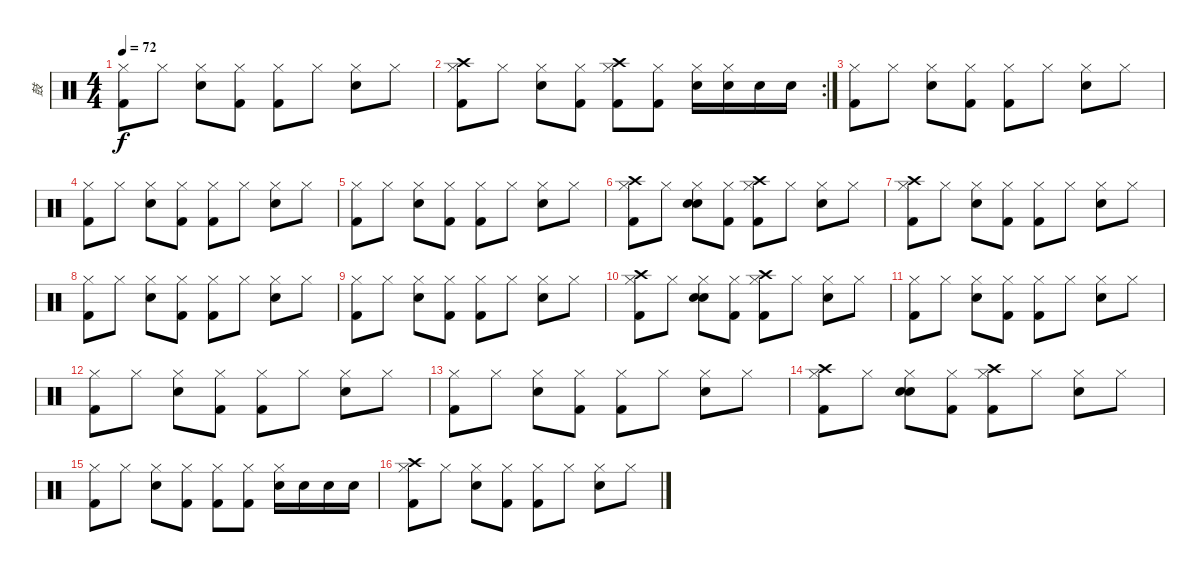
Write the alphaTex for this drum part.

\track ("鼓" "鼓") {instrument percussion}
\staff {score}
\articulation defaults
\ts (4 4)
\tempo 72
\clef neutral
\ks c
("Hi-Hat (closed)" "Kick (hit) 2").8{dy f} "Hi-Hat (closed)".8 ("Hi-Hat (closed)" "Snare (hit) 2").8 ("Hi-Hat (closed)" "Kick (hit) 2").8 ("Hi-Hat (closed)" "Kick (hit) 2").8 "Hi-Hat (closed)".8 ("Hi-Hat (closed)" "Snare (hit) 2").8 "Hi-Hat (closed)".8 |
\rc 2
("Hi-Hat (closed)" "Kick (hit) 2" "Crash high (hit)").8 "Hi-Hat (closed)".8 ("Hi-Hat (closed)" "Snare (hit) 2").8 ("Hi-Hat (closed)" "Kick (hit) 2").8 ("Hi-Hat (closed)" "Crash high (hit)" "Kick (hit) 2").8 ("Hi-Hat (closed)" "Kick (hit) 2").8 ("Hi-Hat (closed)" "Snare (hit) 2").16 ("Hi-Hat (closed)" "Snare (hit) 2").16 "Snare (hit) 2".16 "Snare (hit) 2".16 |
("Hi-Hat (closed)" "Kick (hit) 2").8 "Hi-Hat (closed)".8 ("Hi-Hat (closed)" "Snare (hit) 2").8 ("Hi-Hat (closed)" "Kick (hit) 2").8 ("Hi-Hat (closed)" "Kick (hit) 2").8 "Hi-Hat (closed)".8 ("Hi-Hat (closed)" "Snare (hit) 2").8 "Hi-Hat (closed)".8 |
("Hi-Hat (closed)" "Kick (hit) 2").8 "Hi-Hat (closed)".8 ("Hi-Hat (closed)" "Snare (hit) 2").8 ("Hi-Hat (closed)" "Kick (hit) 2").8 ("Hi-Hat (closed)" "Kick (hit) 2").8 "Hi-Hat (closed)".8 ("Hi-Hat (closed)" "Snare (hit) 2").8 "Hi-Hat (closed)".8 |
("Hi-Hat (closed)" "Kick (hit) 2").8 "Hi-Hat (closed)".8 ("Hi-Hat (closed)" "Snare (hit) 2").8 ("Hi-Hat (closed)" "Kick (hit) 2").8 ("Hi-Hat (closed)" "Kick (hit) 2").8 "Hi-Hat (closed)".8 ("Hi-Hat (closed)" "Snare (hit) 2").8 "Hi-Hat (closed)".8 |
("Hi-Hat (closed)" "Crash high (hit)" "Kick (hit) 2").8 "Hi-Hat (closed)".8 ("Hi-Hat (closed)" "Snare (hit) 2" "Snare (hit) 2").8 ("Hi-Hat (closed)" "Kick (hit) 2").8 ("Hi-Hat (closed)" "Kick (hit) 2" "Crash high (hit)").8 "Hi-Hat (closed)".8 ("Hi-Hat (closed)" "Snare (hit) 2").8 "Hi-Hat (closed)".8 |
("Hi-Hat (closed)" "Kick (hit) 2" "Crash high (hit)").8 "Hi-Hat (closed)".8 ("Hi-Hat (closed)" "Snare (hit) 2").8 ("Hi-Hat (closed)" "Kick (hit) 2").8 ("Hi-Hat (closed)" "Kick (hit) 2").8 "Hi-Hat (closed)".8 ("Hi-Hat (closed)" "Snare (hit) 2").8 "Hi-Hat (closed)".8 |
("Hi-Hat (closed)" "Kick (hit) 2").8 "Hi-Hat (closed)".8 ("Hi-Hat (closed)" "Snare (hit) 2").8 ("Hi-Hat (closed)" "Kick (hit) 2").8 ("Hi-Hat (closed)" "Kick (hit) 2").8 "Hi-Hat (closed)".8 ("Hi-Hat (closed)" "Snare (hit) 2").8 "Hi-Hat (closed)".8 |
("Hi-Hat (closed)" "Kick (hit) 2").8 "Hi-Hat (closed)".8 ("Hi-Hat (closed)" "Snare (hit) 2").8 ("Hi-Hat (closed)" "Kick (hit) 2").8 ("Hi-Hat (closed)" "Kick (hit) 2").8 "Hi-Hat (closed)".8 ("Hi-Hat (closed)" "Snare (hit) 2").8 "Hi-Hat (closed)".8 |
("Hi-Hat (closed)" "Crash high (hit)" "Kick (hit) 2").8 "Hi-Hat (closed)".8 ("Hi-Hat (closed)" "Snare (hit) 2" "Snare (hit) 2").8 ("Hi-Hat (closed)" "Kick (hit) 2").8 ("Hi-Hat (closed)" "Kick (hit) 2" "Crash high (hit)").8 "Hi-Hat (closed)".8 ("Hi-Hat (closed)" "Snare (hit) 2").8 "Hi-Hat (closed)".8 |
("Hi-Hat (closed)" "Kick (hit) 2").8 "Hi-Hat (closed)".8 ("Hi-Hat (closed)" "Snare (hit) 2").8 ("Hi-Hat (closed)" "Kick (hit) 2").8 ("Hi-Hat (closed)" "Kick (hit) 2").8 "Hi-Hat (closed)".8 ("Hi-Hat (closed)" "Snare (hit) 2").8 "Hi-Hat (closed)".8 |
("Hi-Hat (closed)" "Kick (hit) 2").8 "Hi-Hat (closed)".8 ("Hi-Hat (closed)" "Snare (hit) 2").8 ("Hi-Hat (closed)" "Kick (hit) 2").8 ("Hi-Hat (closed)" "Kick (hit) 2").8 "Hi-Hat (closed)".8 ("Hi-Hat (closed)" "Snare (hit) 2").8 "Hi-Hat (closed)".8 |
("Hi-Hat (closed)" "Kick (hit) 2").8 "Hi-Hat (closed)".8 ("Hi-Hat (closed)" "Snare (hit) 2").8 ("Hi-Hat (closed)" "Kick (hit) 2").8 ("Hi-Hat (closed)" "Kick (hit) 2").8 "Hi-Hat (closed)".8 ("Hi-Hat (closed)" "Snare (hit) 2").8 "Hi-Hat (closed)".8 |
("Hi-Hat (closed)" "Crash high (hit)" "Kick (hit) 2").8 "Hi-Hat (closed)".8 ("Hi-Hat (closed)" "Snare (hit) 2" "Snare (hit) 2").8 ("Hi-Hat (closed)" "Kick (hit) 2").8 ("Hi-Hat (closed)" "Kick (hit) 2" "Crash high (hit)").8 "Hi-Hat (closed)".8 ("Hi-Hat (closed)" "Snare (hit) 2").8 "Hi-Hat (closed)".8 |
("Hi-Hat (closed)" "Kick (hit) 2").8 "Hi-Hat (closed)".8 ("Hi-Hat (closed)" "Snare (hit) 2").8 ("Hi-Hat (closed)" "Kick (hit) 2").8 ("Hi-Hat (closed)" "Kick (hit) 2").8 ("Hi-Hat (closed)" "Kick (hit) 2").8 ("Hi-Hat (closed)" "Snare (hit) 2").16 "Snare (hit) 2".16 "Snare (hit) 2".16 "Snare (hit) 2".16 |
("Hi-Hat (closed)" "Kick (hit) 2" "Crash high (hit)").8 "Hi-Hat (closed)".8 ("Hi-Hat (closed)" "Snare (hit) 2").8 ("Hi-Hat (closed)" "Kick (hit) 2").8 ("Hi-Hat (closed)" "Kick (hit) 2").8 "Hi-Hat (closed)".8 ("Hi-Hat (closed)" "Snare (hit) 2").8 "Hi-Hat (closed)".8
